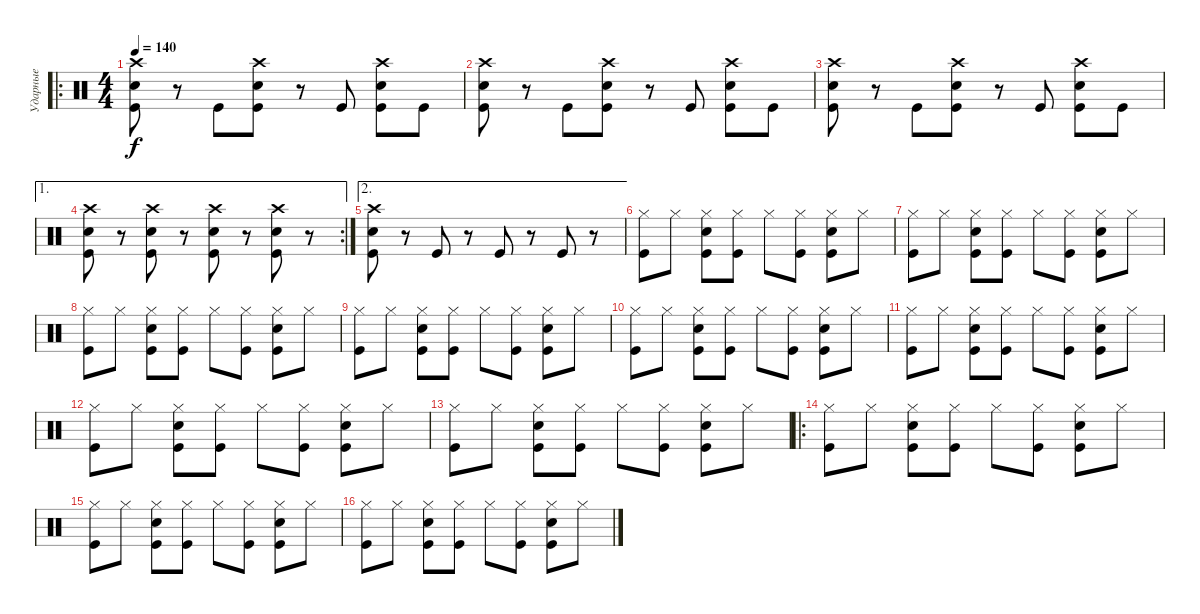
\track ("Ударные" "Ударные") {instrument percussion}
\staff {score}
\articulation defaults
\ro
\ts (4 4)
\tempo 140
\clef neutral
\ks c
("Crash high (hit)" "Snare (hit) 2" "Kick (hit)").8{dy f} r.8 "Kick (hit)".8 ("Crash high (hit)" "Snare (hit) 2" "Kick (hit)").8 r.8 "Kick (hit)".8 ("Crash high (hit)" "Snare (hit) 2" "Kick (hit)").8 "Kick (hit)".8 |
("Crash high (hit)" "Snare (hit) 2" "Kick (hit)").8 r.8 "Kick (hit)".8 ("Crash high (hit)" "Snare (hit) 2" "Kick (hit)").8 r.8 "Kick (hit)".8 ("Crash high (hit)" "Snare (hit) 2" "Kick (hit)").8 "Kick (hit)".8 |
("Crash high (hit)" "Snare (hit) 2" "Kick (hit)").8 r.8 "Kick (hit)".8 ("Crash high (hit)" "Snare (hit) 2" "Kick (hit)").8 r.8 "Kick (hit)".8 ("Crash high (hit)" "Snare (hit) 2" "Kick (hit)").8 "Kick (hit)".8 |
\ae 1
\rc 2
("Crash high (hit)" "Snare (hit) 2" "Kick (hit)").8 r.8 ("Crash high (hit)" "Snare (hit) 2" "Kick (hit)").8 r.8 ("Crash high (hit)" "Snare (hit) 2" "Kick (hit)").8 r.8 ("Crash high (hit)" "Snare (hit) 2" "Kick (hit)").8 r.8 |
\ae 2
("Crash high (hit)" "Snare (hit) 2" "Kick (hit)").8 r.8 "Kick (hit)".8 r.8 "Kick (hit)".8 r.8 "Kick (hit)".8 r.8 |
("Hi-Hat (closed)" "Kick (hit)").8 "Hi-Hat (closed)".8 ("Hi-Hat (closed)" "Snare (hit) 2" "Kick (hit)").8 ("Hi-Hat (closed)" "Kick (hit)").8 "Hi-Hat (closed)".8 ("Hi-Hat (closed)" "Kick (hit)").8 ("Hi-Hat (closed)" "Snare (hit) 2" "Kick (hit)").8 "Hi-Hat (closed)".8 |
("Hi-Hat (closed)" "Kick (hit)").8 "Hi-Hat (closed)".8 ("Hi-Hat (closed)" "Snare (hit) 2" "Kick (hit)").8 ("Hi-Hat (closed)" "Kick (hit)").8 "Hi-Hat (closed)".8 ("Hi-Hat (closed)" "Kick (hit)").8 ("Hi-Hat (closed)" "Snare (hit) 2" "Kick (hit)").8 "Hi-Hat (closed)".8 |
("Hi-Hat (closed)" "Kick (hit)").8 "Hi-Hat (closed)".8 ("Hi-Hat (closed)" "Snare (hit) 2" "Kick (hit)").8 ("Hi-Hat (closed)" "Kick (hit)").8 "Hi-Hat (closed)".8 ("Hi-Hat (closed)" "Kick (hit)").8 ("Hi-Hat (closed)" "Snare (hit) 2" "Kick (hit)").8 "Hi-Hat (closed)".8 |
("Hi-Hat (closed)" "Kick (hit)").8 "Hi-Hat (closed)".8 ("Hi-Hat (closed)" "Snare (hit) 2" "Kick (hit)").8 ("Hi-Hat (closed)" "Kick (hit)").8 "Hi-Hat (closed)".8 ("Hi-Hat (closed)" "Kick (hit)").8 ("Hi-Hat (closed)" "Snare (hit) 2" "Kick (hit)").8 "Hi-Hat (closed)".8 |
("Hi-Hat (closed)" "Kick (hit)").8 "Hi-Hat (closed)".8 ("Hi-Hat (closed)" "Snare (hit) 2" "Kick (hit)").8 ("Hi-Hat (closed)" "Kick (hit)").8 "Hi-Hat (closed)".8 ("Hi-Hat (closed)" "Kick (hit)").8 ("Hi-Hat (closed)" "Snare (hit) 2" "Kick (hit)").8 "Hi-Hat (closed)".8 |
("Hi-Hat (closed)" "Kick (hit)").8 "Hi-Hat (closed)".8 ("Hi-Hat (closed)" "Snare (hit) 2" "Kick (hit)").8 ("Hi-Hat (closed)" "Kick (hit)").8 "Hi-Hat (closed)".8 ("Hi-Hat (closed)" "Kick (hit)").8 ("Hi-Hat (closed)" "Snare (hit) 2" "Kick (hit)").8 "Hi-Hat (closed)".8 |
("Hi-Hat (closed)" "Kick (hit)").8 "Hi-Hat (closed)".8 ("Hi-Hat (closed)" "Snare (hit) 2" "Kick (hit)").8 ("Hi-Hat (closed)" "Kick (hit)").8 "Hi-Hat (closed)".8 ("Hi-Hat (closed)" "Kick (hit)").8 ("Hi-Hat (closed)" "Snare (hit) 2" "Kick (hit)").8 "Hi-Hat (closed)".8 |
("Hi-Hat (closed)" "Kick (hit)").8 "Hi-Hat (closed)".8 ("Hi-Hat (closed)" "Snare (hit) 2" "Kick (hit)").8 ("Hi-Hat (closed)" "Kick (hit)").8 "Hi-Hat (closed)".8 ("Hi-Hat (closed)" "Kick (hit)").8 ("Hi-Hat (closed)" "Snare (hit) 2" "Kick (hit)").8 "Hi-Hat (closed)".8 |
\ro
("Hi-Hat (closed)" "Kick (hit)").8 "Hi-Hat (closed)".8 ("Hi-Hat (closed)" "Snare (hit) 2" "Kick (hit)").8 ("Hi-Hat (closed)" "Kick (hit)").8 "Hi-Hat (closed)".8 ("Hi-Hat (closed)" "Kick (hit)").8 ("Hi-Hat (closed)" "Snare (hit) 2" "Kick (hit)").8 "Hi-Hat (closed)".8 |
("Hi-Hat (closed)" "Kick (hit)").8 "Hi-Hat (closed)".8 ("Hi-Hat (closed)" "Snare (hit) 2" "Kick (hit)").8 ("Hi-Hat (closed)" "Kick (hit)").8 "Hi-Hat (closed)".8 ("Hi-Hat (closed)" "Kick (hit)").8 ("Hi-Hat (closed)" "Snare (hit) 2" "Kick (hit)").8 "Hi-Hat (closed)".8 |
("Hi-Hat (closed)" "Kick (hit)").8 "Hi-Hat (closed)".8 ("Hi-Hat (closed)" "Snare (hit) 2" "Kick (hit)").8 ("Hi-Hat (closed)" "Kick (hit)").8 "Hi-Hat (closed)".8 ("Hi-Hat (closed)" "Kick (hit)").8 ("Hi-Hat (closed)" "Snare (hit) 2" "Kick (hit)").8 "Hi-Hat (closed)".8
